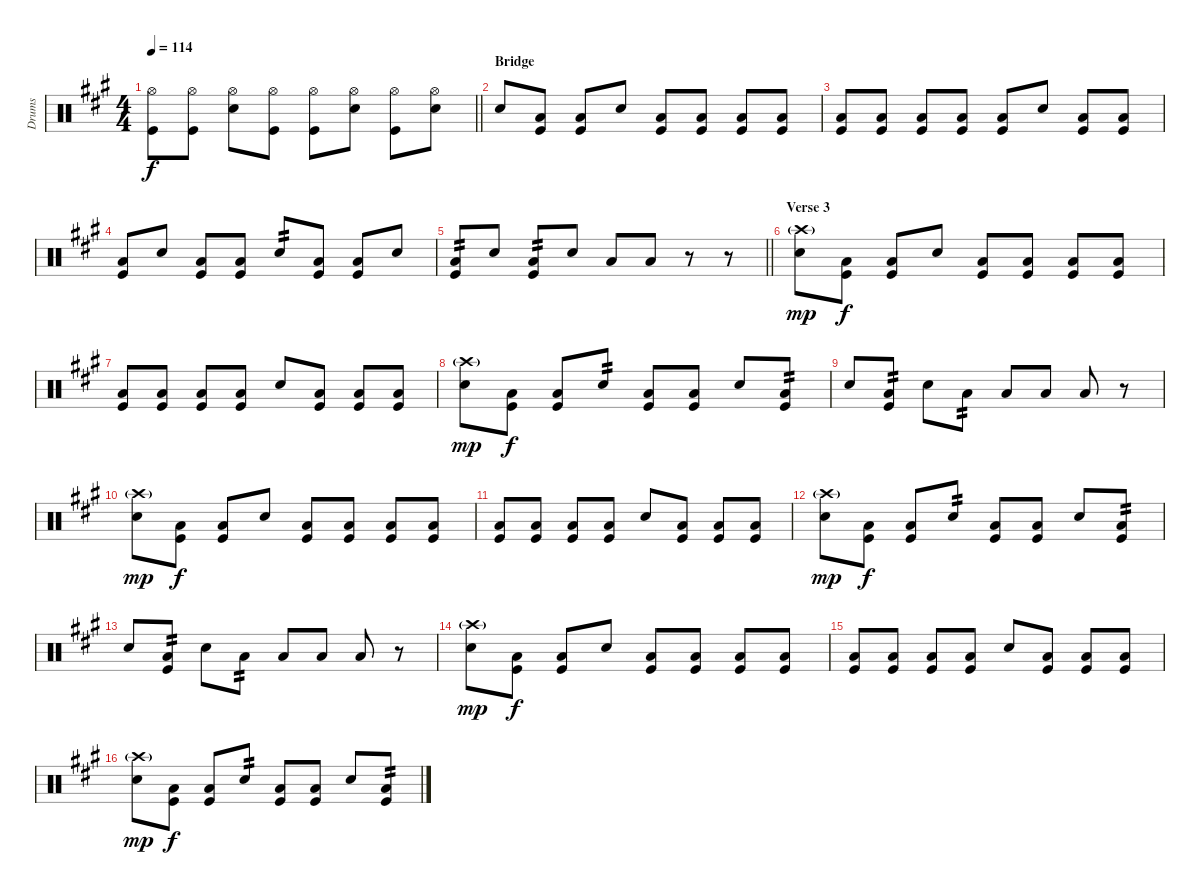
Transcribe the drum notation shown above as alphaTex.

\track ("Drums" "Drums") {instrument percussion}
\staff {score}
\articulation defaults
\ts (4 4)
\tempo 114
\clef neutral
\barLineRight lightlight
\ks f#minor
("Hi-Hat (open)" "Kick (hit)").8{dy f} ("Hi-Hat (open)" "Kick (hit)").8 ("Hi-Hat (open)" "Snare (hit) 2").8 ("Hi-Hat (open)" "Kick (hit)").8 ("Hi-Hat (open)" "Kick (hit)").8 ("Hi-Hat (open)" "Snare (hit) 2").8 ("Hi-Hat (open)" "Kick (hit)").8 ("Hi-Hat (open)" "Snare (hit) 2").8 |
\section ("" "Bridge")
"Snare (hit) 2".8 ("Low Floor Tom (hit)" "Kick (hit)").8 ("Low Floor Tom (hit)" "Kick (hit)").8 "Snare (hit) 2".8 ("Low Floor Tom (hit)" "Kick (hit)").8 ("Low Floor Tom (hit)" "Kick (hit)").8 ("Low Floor Tom (hit)" "Kick (hit)").8 ("Low Floor Tom (hit)" "Kick (hit)").8 |
("Low Floor Tom (hit)" "Kick (hit)").8 ("Low Floor Tom (hit)" "Kick (hit)").8 ("Low Floor Tom (hit)" "Kick (hit)").8 ("Low Floor Tom (hit)" "Kick (hit)").8 ("Low Floor Tom (hit)" "Kick (hit)").8 "Snare (hit) 2".8 ("Low Floor Tom (hit)" "Kick (hit)").8 ("Low Floor Tom (hit)" "Kick (hit)").8 |
("Low Floor Tom (hit)" "Kick (hit)").8 "Snare (hit) 2".8 ("Low Floor Tom (hit)" "Kick (hit)").8 ("Low Floor Tom (hit)" "Kick (hit)").8 "Snare (hit) 2".8{tp 2} ("Low Floor Tom (hit)" "Kick (hit)").8 ("Low Floor Tom (hit)" "Kick (hit)").8 "Snare (hit) 2".8 |
\barLineRight lightlight
("Low Floor Tom (hit)" "Kick (hit)").8{tp 2} "Snare (hit) 2".8 ("Low Floor Tom (hit)" "Kick (hit)").8{tp 2} "Snare (hit) 2".8 "Low Floor Tom (hit)".8 "Low Floor Tom (hit)".8 r.8 r.8 |
\section ("" "Verse 3")
("Crash high (hit)"{g} "Snare (hit) 2").8{dy mp} ("Low Floor Tom (hit)" "Kick (hit)").8{dy f} ("Low Floor Tom (hit)" "Kick (hit)").8 "Snare (hit) 2".8 ("Low Floor Tom (hit)" "Kick (hit)").8 ("Low Floor Tom (hit)" "Kick (hit)").8 ("Low Floor Tom (hit)" "Kick (hit)").8 ("Low Floor Tom (hit)" "Kick (hit)").8 |
("Low Floor Tom (hit)" "Kick (hit)").8 ("Low Floor Tom (hit)" "Kick (hit)").8 ("Low Floor Tom (hit)" "Kick (hit)").8 ("Low Floor Tom (hit)" "Kick (hit)").8 "Snare (hit) 2".8 ("Low Floor Tom (hit)" "Kick (hit)").8 ("Low Floor Tom (hit)" "Kick (hit)").8 ("Low Floor Tom (hit)" "Kick (hit)").8 |
("Crash high (hit)"{g} "Snare (hit) 2").8{dy mp} ("Low Floor Tom (hit)" "Kick (hit)").8{dy f} ("Low Floor Tom (hit)" "Kick (hit)").8 "Snare (hit) 2".8{tp 2} ("Low Floor Tom (hit)" "Kick (hit)").8 ("Low Floor Tom (hit)" "Kick (hit)").8 "Snare (hit) 2".8 ("Low Floor Tom (hit)" "Kick (hit)").8{tp 2} |
"Snare (hit) 2".8 ("Low Floor Tom (hit)" "Kick (hit)").8{tp 2} "Snare (hit) 2".8 "Low Floor Tom (hit)".8{tp 2} "Low Floor Tom (hit)".8 "Low Floor Tom (hit)".8 "Low Floor Tom (hit)".8 r.8 |
("Crash high (hit)"{g} "Snare (hit) 2").8{dy mp} ("Low Floor Tom (hit)" "Kick (hit)").8{dy f} ("Low Floor Tom (hit)" "Kick (hit)").8 "Snare (hit) 2".8 ("Low Floor Tom (hit)" "Kick (hit)").8 ("Low Floor Tom (hit)" "Kick (hit)").8 ("Low Floor Tom (hit)" "Kick (hit)").8 ("Low Floor Tom (hit)" "Kick (hit)").8 |
("Low Floor Tom (hit)" "Kick (hit)").8 ("Low Floor Tom (hit)" "Kick (hit)").8 ("Low Floor Tom (hit)" "Kick (hit)").8 ("Low Floor Tom (hit)" "Kick (hit)").8 "Snare (hit) 2".8 ("Low Floor Tom (hit)" "Kick (hit)").8 ("Low Floor Tom (hit)" "Kick (hit)").8 ("Low Floor Tom (hit)" "Kick (hit)").8 |
("Crash high (hit)"{g} "Snare (hit) 2").8{dy mp} ("Low Floor Tom (hit)" "Kick (hit)").8{dy f} ("Low Floor Tom (hit)" "Kick (hit)").8 "Snare (hit) 2".8{tp 2} ("Low Floor Tom (hit)" "Kick (hit)").8 ("Low Floor Tom (hit)" "Kick (hit)").8 "Snare (hit) 2".8 ("Low Floor Tom (hit)" "Kick (hit)").8{tp 2} |
"Snare (hit) 2".8 ("Low Floor Tom (hit)" "Kick (hit)").8{tp 2} "Snare (hit) 2".8 "Low Floor Tom (hit)".8{tp 2} "Low Floor Tom (hit)".8 "Low Floor Tom (hit)".8 "Low Floor Tom (hit)".8 r.8 |
("Crash high (hit)"{g} "Snare (hit) 2").8{dy mp} ("Low Floor Tom (hit)" "Kick (hit)").8{dy f} ("Low Floor Tom (hit)" "Kick (hit)").8 "Snare (hit) 2".8 ("Low Floor Tom (hit)" "Kick (hit)").8 ("Low Floor Tom (hit)" "Kick (hit)").8 ("Low Floor Tom (hit)" "Kick (hit)").8 ("Low Floor Tom (hit)" "Kick (hit)").8 |
("Low Floor Tom (hit)" "Kick (hit)").8 ("Low Floor Tom (hit)" "Kick (hit)").8 ("Low Floor Tom (hit)" "Kick (hit)").8 ("Low Floor Tom (hit)" "Kick (hit)").8 "Snare (hit) 2".8 ("Low Floor Tom (hit)" "Kick (hit)").8 ("Low Floor Tom (hit)" "Kick (hit)").8 ("Low Floor Tom (hit)" "Kick (hit)").8 |
("Crash high (hit)"{g} "Snare (hit) 2").8{dy mp} ("Low Floor Tom (hit)" "Kick (hit)").8{dy f} ("Low Floor Tom (hit)" "Kick (hit)").8 "Snare (hit) 2".8{tp 2} ("Low Floor Tom (hit)" "Kick (hit)").8 ("Low Floor Tom (hit)" "Kick (hit)").8 "Snare (hit) 2".8 ("Low Floor Tom (hit)" "Kick (hit)").8{tp 2}
